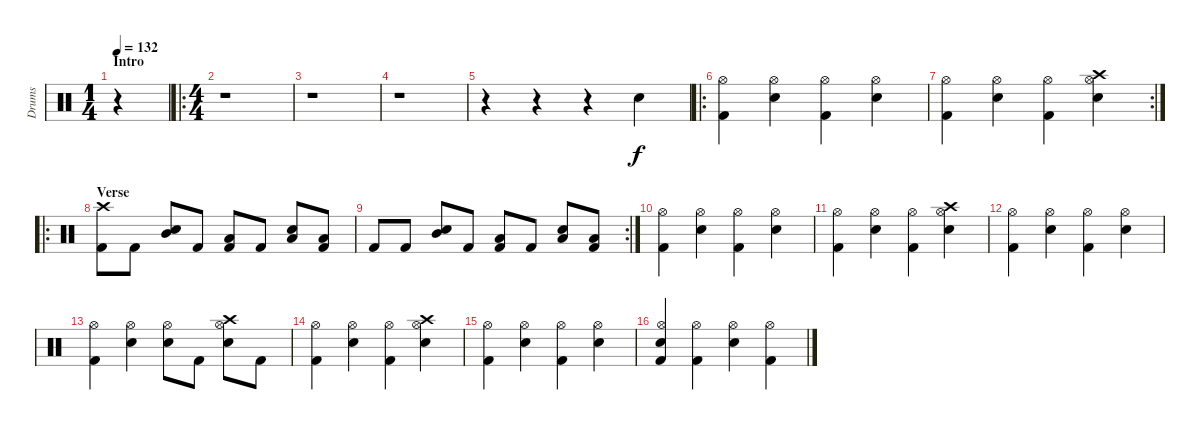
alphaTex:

\track ("Drums" "Drums") {instrument percussion}
\staff {score}
\articulation defaults
\ts (1 4)
\section ("" "Intro")
\tempo 132
\clef neutral
\ks c
r.4{dy f} |
\ro
\ts (4 4)
r.1 |
r.1 |
r.1 |
r.4 r.4 r.4 "Snare (hit) 2".4 |
\ro
("Hi-Hat (open)" "Kick (hit) 2").4 ("Hi-Hat (open)" "Snare (hit) 2").4 ("Hi-Hat (open)" "Kick (hit) 2").4 ("Hi-Hat (open)" "Snare (hit) 2").4 |
\rc 2
("Hi-Hat (open)" "Kick (hit) 2").4 ("Hi-Hat (open)" "Snare (hit) 2").4 ("Hi-Hat (open)" "Kick (hit) 2").4 ("Hi-Hat (open)" "Crash high (hit)" "Snare (hit) 2").4 |
\ro
\section ("" "Verse")
("Crash high (hit)" "Kick (hit) 2").8 "Kick (hit) 2".8 ("Mid Tom (hit)" "Snare (hit) 2").8 "Kick (hit) 2".8 ("Low Tom (hit)" "Kick (hit) 2").8 "Kick (hit) 2".8 ("Low Floor Tom (hit)" "Snare (hit) 2").8 ("Low Floor Tom (hit)" "Kick (hit) 2").8 |
\rc 2 "Kick (hit) 2".8 "Kick (hit) 2".8
("Mid Tom (hit)" "Snare (hit) 2").8 "Kick (hit) 2".8 ("Low Tom (hit)" "Kick (hit) 2").8 "Kick (hit) 2".8 ("Low Floor Tom (hit)" "Snare (hit) 2").8 ("Low Floor Tom (hit)" "Kick (hit) 2").8 |
("Hi-Hat (open)" "Kick (hit) 2").4 ("Hi-Hat (open)" "Snare (hit) 2").4 ("Hi-Hat (open)" "Kick (hit) 2").4 ("Hi-Hat (open)" "Snare (hit) 2").4 |
("Hi-Hat (open)" "Kick (hit) 2").4 ("Hi-Hat (open)" "Snare (hit) 2").4 ("Hi-Hat (open)" "Kick (hit) 2").4 ("Hi-Hat (open)" "Crash high (hit)" "Snare (hit) 2").4 |
("Hi-Hat (open)" "Kick (hit) 2").4 ("Hi-Hat (open)" "Snare (hit) 2").4 ("Hi-Hat (open)" "Kick (hit) 2").4 ("Hi-Hat (open)" "Snare (hit) 2").4 |
("Hi-Hat (open)" "Kick (hit) 2").4 ("Hi-Hat (open)" "Snare (hit) 2").4 ("Hi-Hat (open)" "Snare (hit) 2").8 "Kick (hit) 2".8 ("Hi-Hat (open)" "Crash high (hit)" "Snare (hit) 2").8 "Kick (hit) 2".8 |
("Hi-Hat (open)" "Kick (hit) 2").4 ("Hi-Hat (open)" "Snare (hit) 2").4 ("Hi-Hat (open)" "Kick (hit) 2").4 ("Hi-Hat (open)" "Crash high (hit)" "Snare (hit) 2").4 |
("Hi-Hat (open)" "Kick (hit) 2").4 ("Hi-Hat (open)" "Snare (hit) 2").4 ("Hi-Hat (open)" "Kick (hit) 2").4 ("Hi-Hat (open)" "Snare (hit) 2").4 |
("Hi-Hat (open)" "Snare (hit) 2" "Kick (hit) 2").4 ("Hi-Hat (open)" "Kick (hit) 2").4 ("Hi-Hat (open)" "Snare (hit) 2").4 ("Hi-Hat (open)" "Kick (hit) 2").4
